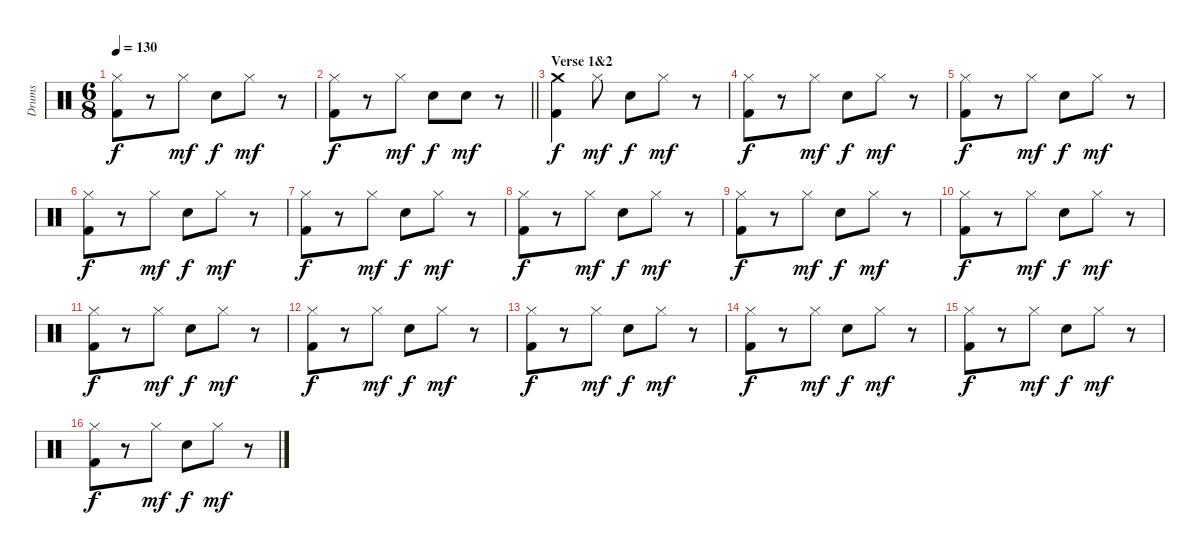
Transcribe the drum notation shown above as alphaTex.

\track ("Drums" "Drums") {instrument percussion}
\staff {score}
\articulation defaults
\ts (6 8)
\tempo 130
\clef neutral
\ks c
("Hi-Hat (closed)" "Kick (hit) 2").8{dy f} r.8 "Hi-Hat (closed)".8{dy mf} "Snare (hit) 2".8{dy f} "Hi-Hat (closed)".8{dy mf} r.8 |
\barLineRight lightlight
("Hi-Hat (closed)" "Kick (hit) 2").8{dy f} r.8 "Hi-Hat (closed)".8{dy mf} "Snare (hit) 2".8{dy f} "Snare (hit) 2".8{dy mf} r.8 |
\section ("" "Verse 1&2")
("Crash medium (hit)" "Kick (hit) 2").4{dy f} "Hi-Hat (closed)".8{dy mf} "Snare (hit) 2".8{dy f} "Hi-Hat (closed)".8{dy mf} r.8 |
("Hi-Hat (closed)" "Kick (hit) 2").8{dy f} r.8 "Hi-Hat (closed)".8{dy mf} "Snare (hit) 2".8{dy f} "Hi-Hat (closed)".8{dy mf} r.8 |
("Hi-Hat (closed)" "Kick (hit) 2").8{dy f} r.8 "Hi-Hat (closed)".8{dy mf} "Snare (hit) 2".8{dy f} "Hi-Hat (closed)".8{dy mf} r.8 |
("Hi-Hat (closed)" "Kick (hit) 2").8{dy f} r.8 "Hi-Hat (closed)".8{dy mf} "Snare (hit) 2".8{dy f} "Hi-Hat (closed)".8{dy mf} r.8 |
("Hi-Hat (closed)" "Kick (hit) 2").8{dy f} r.8 "Hi-Hat (closed)".8{dy mf} "Snare (hit) 2".8{dy f} "Hi-Hat (closed)".8{dy mf} r.8 |
("Hi-Hat (closed)" "Kick (hit) 2").8{dy f} r.8 "Hi-Hat (closed)".8{dy mf} "Snare (hit) 2".8{dy f} "Hi-Hat (closed)".8{dy mf} r.8 |
("Hi-Hat (closed)" "Kick (hit) 2").8{dy f} r.8 "Hi-Hat (closed)".8{dy mf} "Snare (hit) 2".8{dy f} "Hi-Hat (closed)".8{dy mf} r.8 |
("Hi-Hat (closed)" "Kick (hit) 2").8{dy f} r.8 "Hi-Hat (closed)".8{dy mf} "Snare (hit) 2".8{dy f} "Hi-Hat (closed)".8{dy mf} r.8 |
("Hi-Hat (closed)" "Kick (hit) 2").8{dy f} r.8 "Hi-Hat (closed)".8{dy mf} "Snare (hit) 2".8{dy f} "Hi-Hat (closed)".8{dy mf} r.8 |
("Hi-Hat (closed)" "Kick (hit) 2").8{dy f} r.8 "Hi-Hat (closed)".8{dy mf} "Snare (hit) 2".8{dy f} "Hi-Hat (closed)".8{dy mf} r.8 |
("Hi-Hat (closed)" "Kick (hit) 2").8{dy f} r.8 "Hi-Hat (closed)".8{dy mf} "Snare (hit) 2".8{dy f} "Hi-Hat (closed)".8{dy mf} r.8 |
("Hi-Hat (closed)" "Kick (hit) 2").8{dy f} r.8 "Hi-Hat (closed)".8{dy mf} "Snare (hit) 2".8{dy f} "Hi-Hat (closed)".8{dy mf} r.8 |
("Hi-Hat (closed)" "Kick (hit) 2").8{dy f} r.8 "Hi-Hat (closed)".8{dy mf} "Snare (hit) 2".8{dy f} "Hi-Hat (closed)".8{dy mf} r.8 |
("Hi-Hat (closed)" "Kick (hit) 2").8{dy f} r.8 "Hi-Hat (closed)".8{dy mf} "Snare (hit) 2".8{dy f} "Hi-Hat (closed)".8{dy mf} r.8
